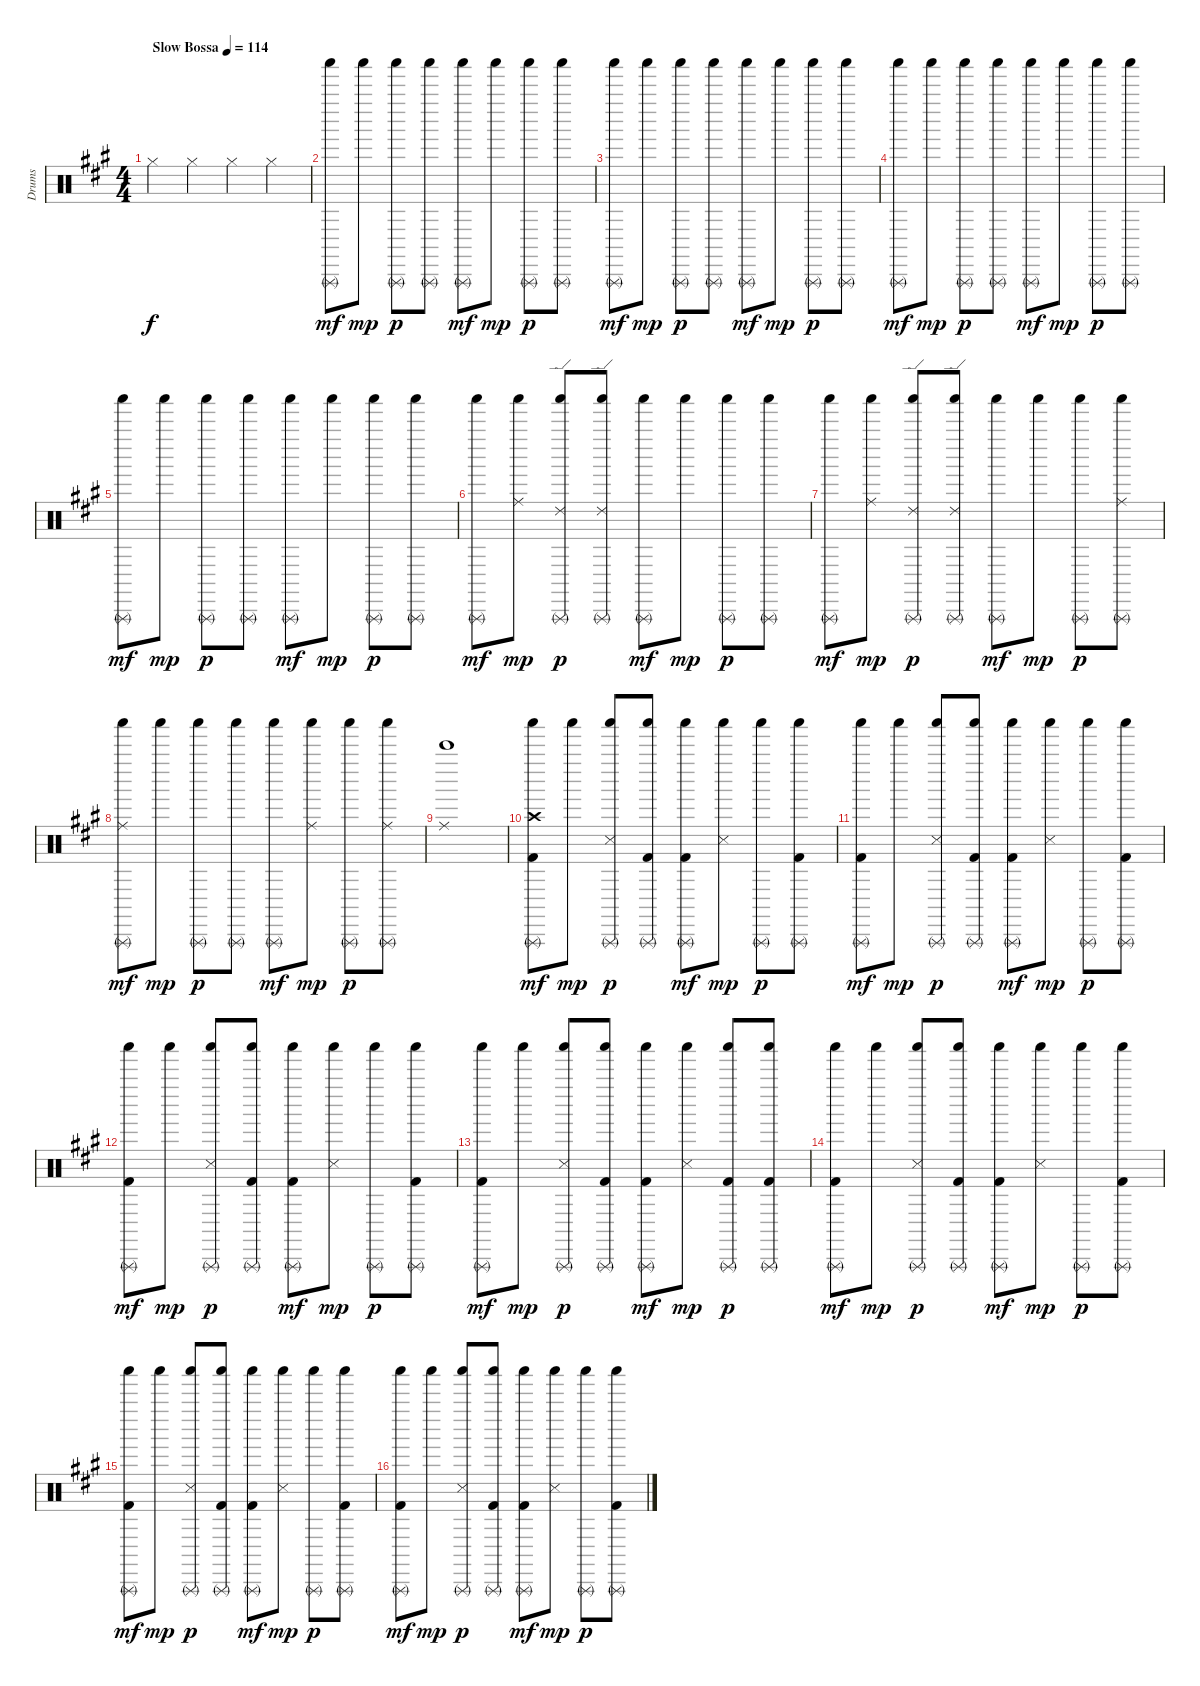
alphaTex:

\track ("Drums" "Drums") {instrument percussion}
\staff {score}
\articulation defaults
\ts (4 4)
\tempo (114 "Slow Bossa")
\clef neutral
\ks a "Hi-Hat (closed)".4{dy f} "Hi-Hat (closed)".4 "Hi-Hat (closed)".4 "Hi-Hat (closed)".4
|
("Triangle (rnute)" "Shaker (hit)").8{dy mf} "Shaker (hit)".8{dy mp} ("Triangle (rnute)" "Shaker (hit)").8{dy p} ("Triangle (rnute)" "Shaker (hit)").8 ("Triangle (rnute)" "Shaker (hit)").8{dy mf} "Shaker (hit)".8{dy mp} ("Triangle (rnute)" "Shaker (hit)").8{dy p} ("Triangle (rnute)" "Shaker (hit)").8 |
("Triangle (rnute)" "Shaker (hit)").8{dy mf} "Shaker (hit)".8{dy mp} ("Triangle (rnute)" "Shaker (hit)").8{dy p} ("Triangle (rnute)" "Shaker (hit)").8 ("Triangle (rnute)" "Shaker (hit)").8{dy mf} "Shaker (hit)".8{dy mp} ("Triangle (rnute)" "Shaker (hit)").8{dy p} ("Triangle (rnute)" "Shaker (hit)").8 |
("Triangle (rnute)" "Shaker (hit)").8{dy mf} "Shaker (hit)".8{dy mp} ("Triangle (rnute)" "Shaker (hit)").8{dy p} ("Triangle (rnute)" "Shaker (hit)").8 ("Triangle (rnute)" "Shaker (hit)").8{dy mf} "Shaker (hit)".8{dy mp} ("Triangle (rnute)" "Shaker (hit)").8{dy p} ("Triangle (rnute)" "Shaker (hit)").8 |
("Triangle (rnute)" "Shaker (hit)").8{dy mf} "Shaker (hit)".8{dy mp} ("Triangle (rnute)" "Shaker (hit)").8{dy p} ("Triangle (rnute)" "Shaker (hit)").8 ("Triangle (rnute)" "Shaker (hit)").8{dy mf} "Shaker (hit)".8{dy mp} ("Triangle (rnute)" "Shaker (hit)").8{dy p} ("Triangle (rnute)" "Shaker (hit)").8 |
("Triangle (rnute)" "Shaker (hit)").8{dy mf} ("Ride (middle)" "Shaker (hit)").8{dy mp} ("Ride (edge) 2" "Triangle (rnute)" "Shaker (hit)").8{dy p} ("Ride (edge) 2" "Triangle (rnute)" "Shaker (hit)").8 ("Triangle (rnute)" "Shaker (hit)").8{dy mf} "Shaker (hit)".8{dy mp} ("Triangle (rnute)" "Shaker (hit)").8{dy p} ("Triangle (rnute)" "Shaker (hit)").8 |
("Triangle (rnute)" "Shaker (hit)").8{dy mf} ("Ride (middle)" "Shaker (hit)").8{dy mp} ("Ride (edge) 2" "Triangle (rnute)" "Shaker (hit)").8{dy p} ("Ride (edge) 2" "Triangle (rnute)" "Shaker (hit)").8 ("Triangle (rnute)" "Shaker (hit)").8{dy mf} "Shaker (hit)".8{dy mp} ("Triangle (rnute)" "Shaker (hit)").8{dy p} ("Ride (middle)" "Triangle (rnute)" "Shaker (hit)").8 |
("Ride (middle)" "Triangle (rnute)" "Shaker (hit)").8{dy mf} "Shaker (hit)".8{dy mp} ("Triangle (rnute)" "Shaker (hit)").8{dy p} ("Triangle (rnute)" "Shaker (hit)").8 ("Triangle (rnute)" "Shaker (hit)").8{dy mf} ("Ride (middle)" "Shaker (hit)").8{dy mp} ("Triangle (rnute)" "Shaker (hit)").8{dy p} ("Ride (middle)" "Triangle (rnute)" "Shaker (hit)").8 |
("Ride (middle)" "Bell Tree (hit)").1 |
("Kick (hit) 2" "Crash high (hit)" "Triangle (rnute)" "Shaker (hit)").8{dy mf} "Shaker (hit)".8{dy mp} ("Snare (side stick) 3" "Triangle (rnute)" "Shaker (hit)").8{dy p} ("Kick (hit) 2" "Triangle (rnute)" "Shaker (hit)").8 ("Kick (hit) 2" "Triangle (rnute)" "Shaker (hit)").8{dy mf} ("Snare (side stick) 3" "Shaker (hit)").8{dy mp} ("Triangle (rnute)" "Shaker (hit)").8{dy p} ("Kick (hit) 2" "Triangle (rnute)" "Shaker (hit)").8 |
("Kick (hit) 2" "Triangle (rnute)" "Shaker (hit)").8{dy mf} "Shaker (hit)".8{dy mp} ("Snare (side stick) 3" "Triangle (rnute)" "Shaker (hit)").8{dy p} ("Kick (hit) 2" "Triangle (rnute)" "Shaker (hit)").8 ("Kick (hit) 2" "Triangle (rnute)" "Shaker (hit)").8{dy mf} ("Snare (side stick) 3" "Shaker (hit)").8{dy mp} ("Triangle (rnute)" "Shaker (hit)").8{dy p} ("Kick (hit) 2" "Triangle (rnute)" "Shaker (hit)").8 |
("Kick (hit) 2" "Triangle (rnute)" "Shaker (hit)").8{dy mf} "Shaker (hit)".8{dy mp} ("Snare (side stick) 3" "Triangle (rnute)" "Shaker (hit)").8{dy p} ("Kick (hit) 2" "Triangle (rnute)" "Shaker (hit)").8 ("Kick (hit) 2" "Triangle (rnute)" "Shaker (hit)").8{dy mf} ("Snare (side stick) 3" "Shaker (hit)").8{dy mp} ("Triangle (rnute)" "Shaker (hit)").8{dy p} ("Kick (hit) 2" "Triangle (rnute)" "Shaker (hit)").8 |
("Kick (hit) 2" "Triangle (rnute)" "Shaker (hit)").8{dy mf} "Shaker (hit)".8{dy mp} ("Snare (side stick) 3" "Triangle (rnute)" "Shaker (hit)").8{dy p} ("Kick (hit) 2" "Triangle (rnute)" "Shaker (hit)").8 ("Kick (hit) 2" "Triangle (rnute)" "Shaker (hit)").8{dy mf} ("Snare (side stick) 3" "Shaker (hit)").8{dy mp} ("Kick (hit) 2" "Triangle (rnute)" "Shaker (hit)").8{dy p} ("Kick (hit) 2" "Triangle (rnute)" "Shaker (hit)").8 |
("Kick (hit) 2" "Triangle (rnute)" "Shaker (hit)").8{dy mf} "Shaker (hit)".8{dy mp} ("Snare (side stick) 3" "Triangle (rnute)" "Shaker (hit)").8{dy p} ("Kick (hit) 2" "Triangle (rnute)" "Shaker (hit)").8 ("Kick (hit) 2" "Triangle (rnute)" "Shaker (hit)").8{dy mf} ("Snare (side stick) 3" "Shaker (hit)").8{dy mp} ("Triangle (rnute)" "Shaker (hit)").8{dy p} ("Kick (hit) 2" "Triangle (rnute)" "Shaker (hit)").8 |
("Kick (hit) 2" "Triangle (rnute)" "Shaker (hit)").8{dy mf} "Shaker (hit)".8{dy mp} ("Snare (side stick) 3" "Triangle (rnute)" "Shaker (hit)").8{dy p} ("Kick (hit) 2" "Triangle (rnute)" "Shaker (hit)").8 ("Kick (hit) 2" "Triangle (rnute)" "Shaker (hit)").8{dy mf} ("Snare (side stick) 3" "Shaker (hit)").8{dy mp} ("Triangle (rnute)" "Shaker (hit)").8{dy p} ("Kick (hit) 2" "Triangle (rnute)" "Shaker (hit)").8 |
("Kick (hit) 2" "Triangle (rnute)" "Shaker (hit)").8{dy mf} "Shaker (hit)".8{dy mp} ("Snare (side stick) 3" "Triangle (rnute)" "Shaker (hit)").8{dy p} ("Kick (hit) 2" "Triangle (rnute)" "Shaker (hit)").8 ("Kick (hit) 2" "Triangle (rnute)" "Shaker (hit)").8{dy mf} ("Snare (side stick) 3" "Shaker (hit)").8{dy mp} ("Triangle (rnute)" "Shaker (hit)").8{dy p} ("Kick (hit) 2" "Triangle (rnute)" "Shaker (hit)").8
